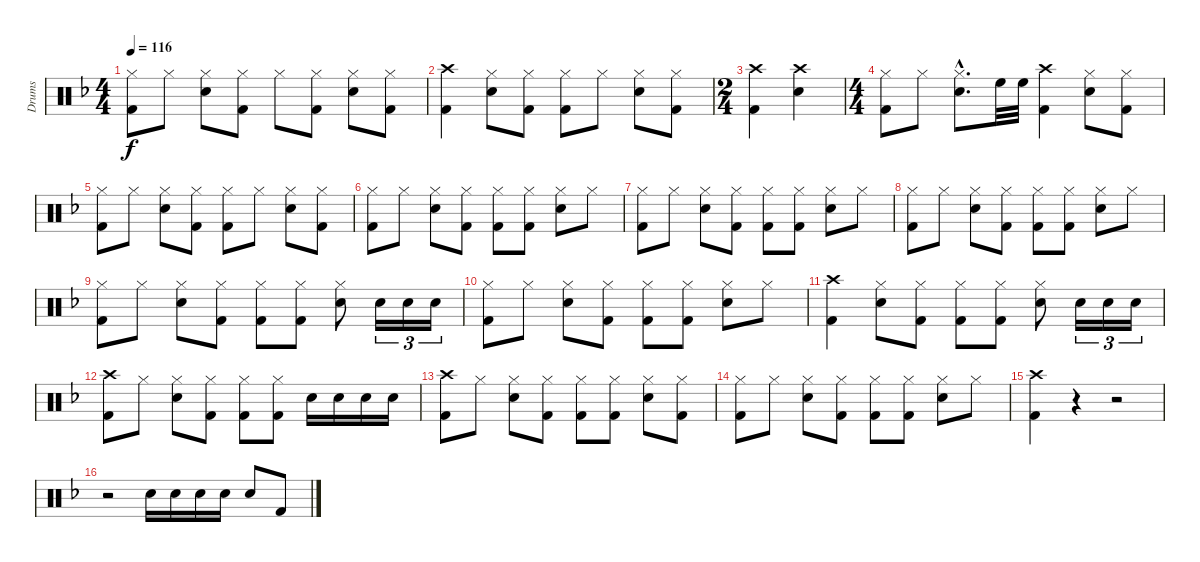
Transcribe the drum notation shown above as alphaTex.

\track ("Drums" "Drums") {instrument percussion}
\staff {score}
\articulation defaults
\ts (4 4)
\tempo 116
\clef neutral
\ks dminor
("Hi-Hat (closed)" "Kick (hit) 2").8{dy f} "Hi-Hat (closed)".8 ("Hi-Hat (closed)" "Electric Snare (hit)").8 ("Hi-Hat (closed)" "Kick (hit) 2").8 "Hi-Hat (closed)".8 ("Hi-Hat (closed)" "Kick (hit) 2").8 ("Hi-Hat (closed)" "Electric Snare (hit)").8 ("Hi-Hat (closed)" "Kick (hit) 2").8 |
("Crash high (hit)" "Kick (hit) 2").4 ("Hi-Hat (closed)" "Electric Snare (hit)").8 ("Hi-Hat (closed)" "Kick (hit) 2").8 ("Hi-Hat (closed)" "Kick (hit) 2").8 "Hi-Hat (closed)".8 ("Hi-Hat (closed)" "Electric Snare (hit)").8 ("Hi-Hat (closed)" "Kick (hit) 2").8 |
\ts (2 4)
("Crash high (hit)" "Kick (hit) 2").4 ("Crash high (hit)" "Electric Snare (hit)").4 |
\ts (4 4)
("Hi-Hat (closed)" "Kick (hit) 2").8 "Hi-Hat (closed)".8 ("Hi-Hat (closed)"{hac} "Electric Snare (hit)"{hac}).8{d} "High Floor Tom (hit)".32 "High Floor Tom (hit)".32 ("Crash high (hit)" "Kick (hit) 2").4 ("Hi-Hat (closed)" "Electric Snare (hit)").8 ("Hi-Hat (closed)" "Kick (hit) 2").8 |
("Hi-Hat (closed)" "Kick (hit) 2").8 "Hi-Hat (closed)".8 ("Hi-Hat (closed)" "Electric Snare (hit)").8 ("Hi-Hat (closed)" "Kick (hit) 2").8 ("Hi-Hat (closed)" "Kick (hit) 2").8 "Hi-Hat (closed)".8 ("Hi-Hat (closed)" "Electric Snare (hit)").8 ("Hi-Hat (closed)" "Kick (hit) 2").8 |
("Hi-Hat (closed)" "Kick (hit) 2").8 "Hi-Hat (closed)".8 ("Hi-Hat (closed)" "Electric Snare (hit)").8 ("Hi-Hat (closed)" "Kick (hit) 2").8 ("Hi-Hat (closed)" "Kick (hit) 2").8 ("Hi-Hat (closed)" "Kick (hit) 2").8 ("Hi-Hat (closed)" "Electric Snare (hit)").8 "Hi-Hat (closed)".8 |
("Hi-Hat (closed)" "Kick (hit) 2").8 "Hi-Hat (closed)".8 ("Hi-Hat (closed)" "Electric Snare (hit)").8 ("Hi-Hat (closed)" "Kick (hit) 2").8 ("Hi-Hat (closed)" "Kick (hit) 2").8 ("Hi-Hat (closed)" "Kick (hit) 2").8 ("Hi-Hat (closed)" "Electric Snare (hit)").8 "Hi-Hat (closed)".8 |
("Hi-Hat (closed)" "Kick (hit) 2").8 "Hi-Hat (closed)".8 ("Hi-Hat (closed)" "Electric Snare (hit)").8 ("Hi-Hat (closed)" "Kick (hit) 2").8 ("Hi-Hat (closed)" "Kick (hit) 2").8 ("Hi-Hat (closed)" "Kick (hit) 2").8 ("Hi-Hat (closed)" "Electric Snare (hit)").8 "Hi-Hat (closed)".8 |
("Hi-Hat (closed)" "Kick (hit) 2").8 "Hi-Hat (closed)".8 ("Hi-Hat (closed)" "Electric Snare (hit)").8 ("Hi-Hat (closed)" "Kick (hit) 2").8 ("Hi-Hat (closed)" "Kick (hit) 2").8 ("Hi-Hat (closed)" "Kick (hit) 2").8 ("Hi-Hat (closed)" "Electric Snare (hit)").8 "Electric Snare (hit)".16{tu (3 2)} "Electric Snare (hit)".16{tu (3 2)} "Electric Snare (hit)".16{tu (3 2)} |
("Hi-Hat (closed)" "Kick (hit) 2").8 "Hi-Hat (closed)".8 ("Hi-Hat (closed)" "Electric Snare (hit)").8 ("Hi-Hat (closed)" "Kick (hit) 2").8 ("Hi-Hat (closed)" "Kick (hit) 2").8 ("Hi-Hat (closed)" "Kick (hit) 2").8 ("Hi-Hat (closed)" "Electric Snare (hit)").8 "Hi-Hat (closed)".8 |
("Crash high (hit)" "Kick (hit) 2").4 ("Hi-Hat (closed)" "Electric Snare (hit)").8 ("Hi-Hat (closed)" "Kick (hit) 2").8 ("Hi-Hat (closed)" "Kick (hit) 2").8 ("Hi-Hat (closed)" "Kick (hit) 2").8 ("Hi-Hat (closed)" "Electric Snare (hit)").8 "Electric Snare (hit)".16{tu (3 2)} "Electric Snare (hit)".16{tu (3 2)} "Electric Snare (hit)".16{tu (3 2)} |
("Crash high (hit)" "Kick (hit) 2").8 "Hi-Hat (closed)".8 ("Hi-Hat (closed)" "Electric Snare (hit)").8 ("Hi-Hat (closed)" "Kick (hit) 2").8 ("Hi-Hat (closed)" "Kick (hit) 2").8 ("Hi-Hat (closed)" "Kick (hit) 2").8 "Electric Snare (hit)".16 "Electric Snare (hit)".16 "Electric Snare (hit)".16 "Electric Snare (hit)".16 |
("Crash high (hit)" "Kick (hit) 2").8 "Hi-Hat (closed)".8 ("Hi-Hat (closed)" "Electric Snare (hit)").8 ("Hi-Hat (closed)" "Kick (hit) 2").8 ("Hi-Hat (closed)" "Kick (hit) 2").8 ("Hi-Hat (closed)" "Kick (hit) 2").8 ("Hi-Hat (closed)" "Electric Snare (hit)").8 ("Hi-Hat (closed)" "Kick (hit) 2").8 |
("Hi-Hat (closed)" "Kick (hit) 2").8 "Hi-Hat (closed)".8 ("Hi-Hat (closed)" "Electric Snare (hit)").8 ("Hi-Hat (closed)" "Kick (hit) 2").8 ("Hi-Hat (closed)" "Kick (hit) 2").8 ("Hi-Hat (closed)" "Kick (hit) 2").8 ("Hi-Hat (closed)" "Electric Snare (hit)").8 "Hi-Hat (closed)".8 |
("Crash high (hit)" "Kick (hit) 2").4 r.4 r.2 |
r.2 "Electric Snare (hit)".16 "Electric Snare (hit)".16 "Electric Snare (hit)".16 "Electric Snare (hit)".16 "Electric Snare (hit)".8 "Kick (hit) 2".8
